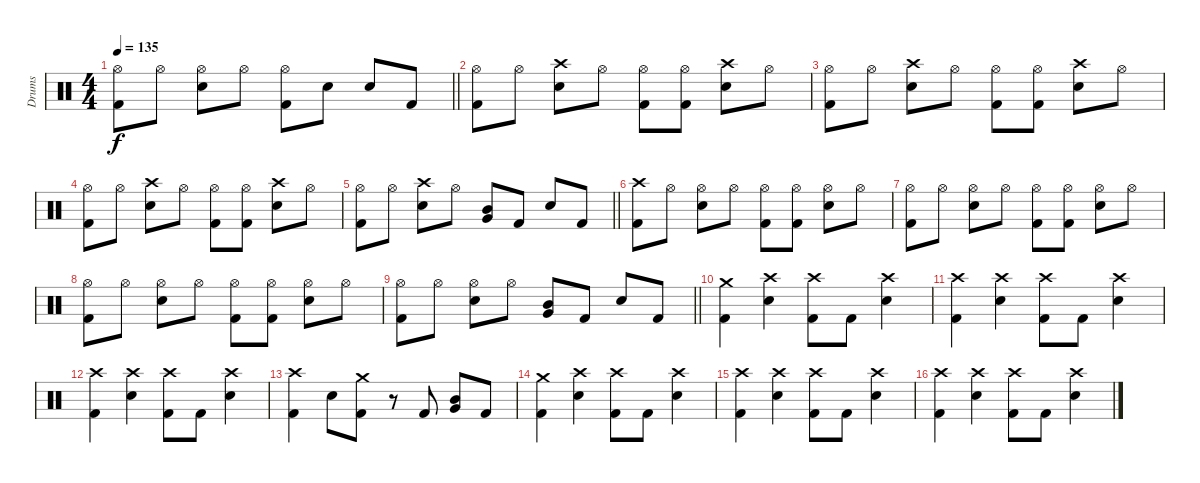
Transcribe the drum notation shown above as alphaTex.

\track ("Drums" "Drums") {instrument percussion}
\staff {score}
\articulation defaults
\ts (4 4)
\tempo 135
\clef neutral
\barLineRight lightlight
\ks aminor
("Hi-Hat (open)" "Kick (hit) 2").8{dy f} "Hi-Hat (open)".8 ("Hi-Hat (open)" "Electric Snare (hit)").8 "Hi-Hat (open)".8 ("Hi-Hat (open)" "Kick (hit) 2").8 "Electric Snare (hit)".8 "Electric Snare (hit)".8 "Kick (hit) 2".8 |
("Hi-Hat (open)" "Kick (hit) 2").8 "Hi-Hat (open)".8 ("Crash high (hit)" "Electric Snare (hit)").8 "Hi-Hat (open)".8 ("Hi-Hat (open)" "Kick (hit) 2").8 ("Hi-Hat (open)" "Kick (hit) 2").8 ("Crash high (hit)" "Electric Snare (hit)").8 "Hi-Hat (open)".8 |
("Hi-Hat (open)" "Kick (hit) 2").8 "Hi-Hat (open)".8 ("Crash high (hit)" "Electric Snare (hit)").8 "Hi-Hat (open)".8 ("Hi-Hat (open)" "Kick (hit) 2").8 ("Hi-Hat (open)" "Kick (hit) 2").8 ("Crash high (hit)" "Electric Snare (hit)").8 "Hi-Hat (open)".8 |
("Hi-Hat (open)" "Kick (hit) 2").8 "Hi-Hat (open)".8 ("Crash high (hit)" "Electric Snare (hit)").8 "Hi-Hat (open)".8 ("Hi-Hat (open)" "Kick (hit) 2").8 ("Hi-Hat (open)" "Kick (hit) 2").8 ("Crash high (hit)" "Electric Snare (hit)").8 "Hi-Hat (open)".8 |
\barLineRight lightlight
("Hi-Hat (open)" "Kick (hit) 2").8 "Hi-Hat (open)".8 ("Crash high (hit)" "Electric Snare (hit)").8 "Hi-Hat (open)".8 ("Mid Tom (hit)" "Very Low Tom (hit)").8 "Kick (hit) 2".8 "Electric Snare (hit)".8 "Kick (hit) 2".8 |
("Crash high (hit)" "Kick (hit) 2").8 "Hi-Hat (open)".8 ("Hi-Hat (open)" "Electric Snare (hit)").8 "Hi-Hat (open)".8 ("Hi-Hat (open)" "Kick (hit) 2").8 ("Hi-Hat (open)" "Kick (hit) 2").8 ("Hi-Hat (open)" "Electric Snare (hit)").8 "Hi-Hat (open)".8 |
("Hi-Hat (open)" "Kick (hit) 2").8 "Hi-Hat (open)".8 ("Hi-Hat (open)" "Electric Snare (hit)").8 "Hi-Hat (open)".8 ("Hi-Hat (open)" "Kick (hit) 2").8 ("Hi-Hat (open)" "Kick (hit) 2").8 ("Hi-Hat (open)" "Electric Snare (hit)").8 "Hi-Hat (open)".8 |
("Hi-Hat (open)" "Kick (hit) 2").8 "Hi-Hat (open)".8 ("Hi-Hat (open)" "Electric Snare (hit)").8 "Hi-Hat (open)".8 ("Hi-Hat (open)" "Kick (hit) 2").8 ("Hi-Hat (open)" "Kick (hit) 2").8 ("Hi-Hat (open)" "Electric Snare (hit)").8 "Hi-Hat (open)".8 |
\barLineRight lightlight
("Hi-Hat (open)" "Kick (hit) 2").8 "Hi-Hat (open)".8 ("Hi-Hat (open)" "Electric Snare (hit)").8 "Hi-Hat (open)".8 ("Mid Tom (hit)" "Very Low Tom (hit)").8 "Kick (hit) 2".8 "Electric Snare (hit)".8 "Kick (hit) 2".8 |
("Crash medium (hit)" "Kick (hit) 2").4 ("Crash high (hit)" "Electric Snare (hit)").4 ("Crash high (hit)" "Kick (hit) 2").8 "Kick (hit) 2".8 ("Crash high (hit)" "Electric Snare (hit)").4 |
("Crash high (hit)" "Kick (hit) 2").4 ("Crash high (hit)" "Electric Snare (hit)").4 ("Crash high (hit)" "Kick (hit) 2").8 "Kick (hit) 2".8 ("Crash high (hit)" "Electric Snare (hit)").4 |
("Crash high (hit)" "Kick (hit) 2").4 ("Crash high (hit)" "Electric Snare (hit)").4 ("Crash high (hit)" "Kick (hit) 2").8 "Kick (hit) 2".8 ("Crash high (hit)" "Electric Snare (hit)").4 |
("Crash high (hit)" "Kick (hit) 2").4 "Electric Snare (hit)".8 ("Crash medium (hit)" "Kick (hit) 2").8 r.8 "Kick (hit) 2".8 ("Mid Tom (hit)" "Very Low Tom (hit)").8 "Kick (hit) 2".8 |
("Crash medium (hit)" "Kick (hit) 2").4 ("Crash high (hit)" "Electric Snare (hit)").4 ("Crash high (hit)" "Kick (hit) 2").8 "Kick (hit) 2".8 ("Crash high (hit)" "Electric Snare (hit)").4 |
("Crash high (hit)" "Kick (hit) 2").4 ("Crash high (hit)" "Electric Snare (hit)").4 ("Crash high (hit)" "Kick (hit) 2").8 "Kick (hit) 2".8 ("Crash high (hit)" "Electric Snare (hit)").4 |
("Crash high (hit)" "Kick (hit) 2").4 ("Crash high (hit)" "Electric Snare (hit)").4 ("Crash high (hit)" "Kick (hit) 2").8 "Kick (hit) 2".8 ("Crash high (hit)" "Electric Snare (hit)").4
